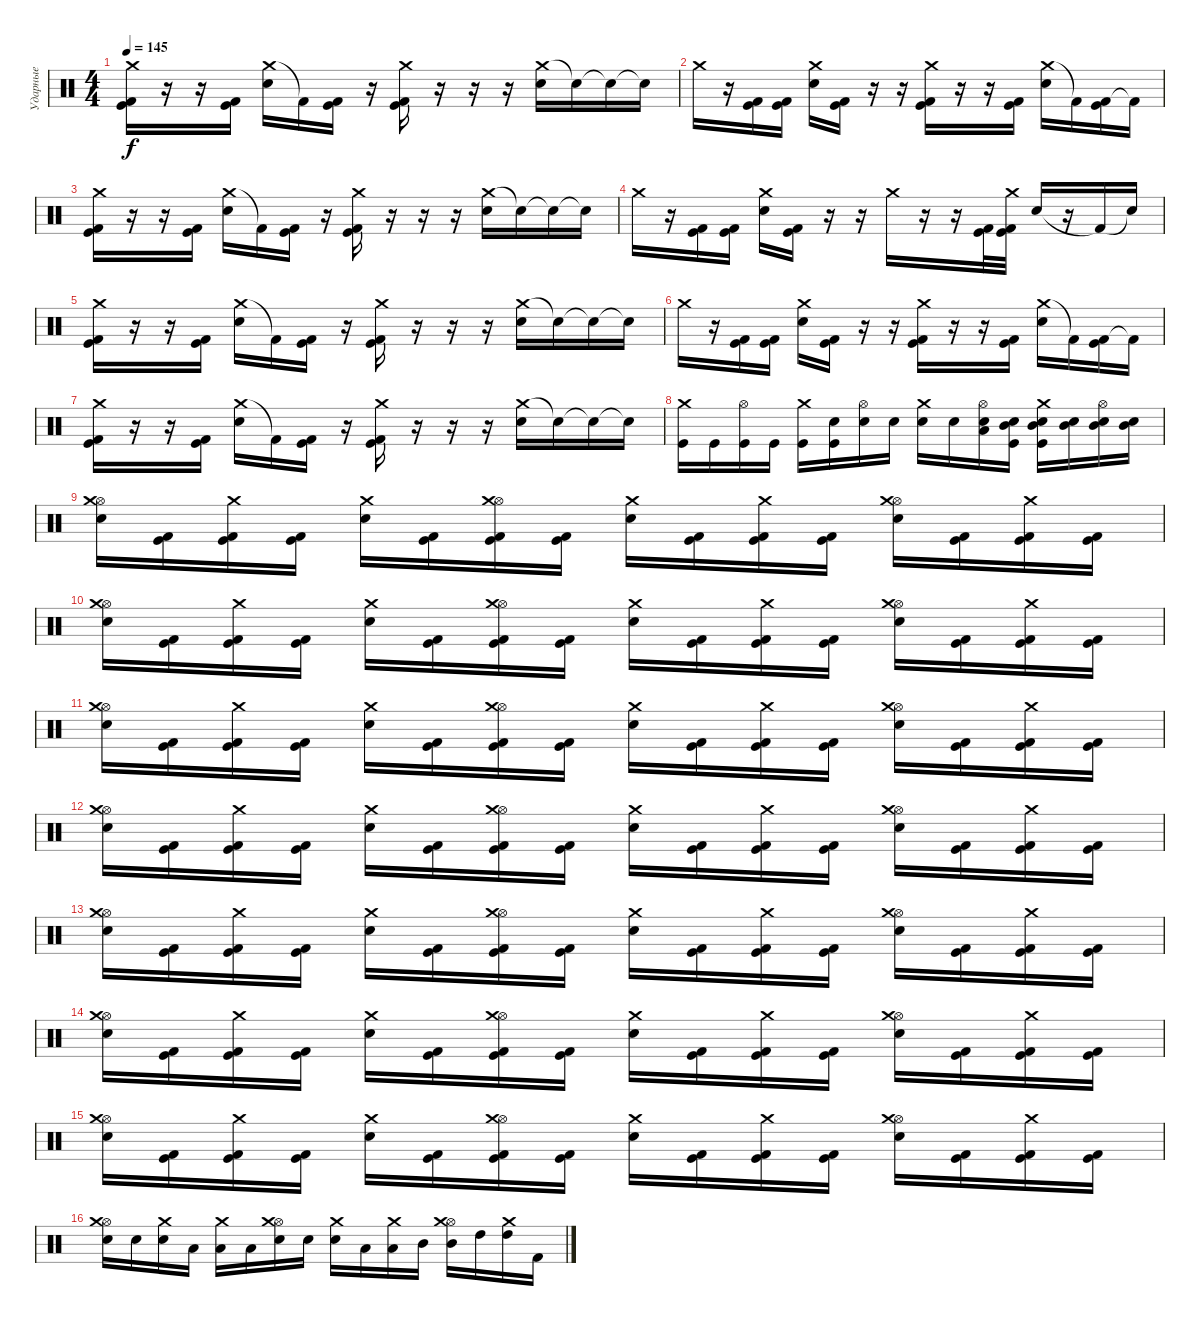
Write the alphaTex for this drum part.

\track ("Ударные" "Ударные") {instrument percussion}
\staff {score}
\articulation defaults
\ts (4 4)
\tempo 145
\clef neutral
\ks c
("Crash medium (hit)" "Kick (hit) 2" "Kick (hit)").16{dy f} r.16 r.16 ("Kick (hit) 2" "Kick (hit)").16 ("Crash medium (hit)" "Electric Snare (hit)").16 "Kick (hit) 2"{t}.16 ("Kick (hit) 2" "Kick (hit)").16 r.16 ("Crash medium (hit)" "Kick (hit) 2" "Kick (hit)").16 r.16 r.16 r.16 ("Crash medium (hit)" "Electric Snare (hit)").16 "Snare (hit)"{t}.16 "Snare (hit)"{t}.16 "Snare (hit)"{t}.16 |
"Crash medium (hit)".16 r.16 ("Kick (hit) 2" "Kick (hit)").16 ("Kick (hit) 2" "Kick (hit)").16 ("Crash medium (hit)" "Electric Snare (hit)").16 ("Kick (hit) 2" "Kick (hit)").16 r.16 r.16 ("Crash medium (hit)" "Kick (hit) 2" "Kick (hit)").16 r.16 r.16 ("Kick (hit) 2" "Kick (hit)").16 ("Crash medium (hit)" "Electric Snare (hit)").16 "Kick (hit) 2"{t}.16 ("Kick (hit) 2" "Kick (hit)").16 "Kick (hit) 2"{t}.16 |
("Crash medium (hit)" "Kick (hit) 2" "Kick (hit)").16 r.16 r.16 ("Kick (hit) 2" "Kick (hit)").16 ("Crash medium (hit)" "Electric Snare (hit)").16 "Kick (hit) 2"{t}.16 ("Kick (hit) 2" "Kick (hit)").16 r.16 ("Crash medium (hit)" "Kick (hit) 2" "Kick (hit)").16 r.16 r.16 r.16 ("Crash medium (hit)" "Electric Snare (hit)").16 "Snare (hit)"{t}.16 "Snare (hit)"{t}.16 "Snare (hit)"{t}.16 |
"Crash medium (hit)".16 r.16 ("Kick (hit) 2" "Kick (hit)").16 ("Kick (hit) 2" "Kick (hit)").16 ("Crash medium (hit)" "Electric Snare (hit)").16 ("Kick (hit) 2" "Kick (hit)").16 r.16 r.16 "Crash medium (hit)".16 r.16 r.16 ("Kick (hit) 2" "Kick (hit)").32 ("Crash medium (hit)" "Kick (hit) 2" "Kick (hit)").32 "Electric Snare (hit)".16 r.16 "Kick (hit) 2"{t}.16 "Snare (hit)"{t}.16 |
("Crash medium (hit)" "Kick (hit) 2" "Kick (hit)").16 r.16 r.16 ("Kick (hit) 2" "Kick (hit)").16 ("Crash medium (hit)" "Electric Snare (hit)").16 "Kick (hit) 2"{t}.16 ("Kick (hit) 2" "Kick (hit)").16 r.16 ("Crash medium (hit)" "Kick (hit) 2" "Kick (hit)").16 r.16 r.16 r.16 ("Crash medium (hit)" "Electric Snare (hit)").16 "Snare (hit)"{t}.16 "Snare (hit)"{t}.16 "Snare (hit)"{t}.16 |
"Crash medium (hit)".16 r.16 ("Kick (hit) 2" "Kick (hit)").16 ("Kick (hit) 2" "Kick (hit)").16 ("Crash medium (hit)" "Electric Snare (hit)").16 ("Kick (hit) 2" "Kick (hit)").16 r.16 r.16 ("Crash medium (hit)" "Kick (hit) 2" "Kick (hit)").16 r.16 r.16 ("Kick (hit) 2" "Kick (hit)").16 ("Crash medium (hit)" "Electric Snare (hit)").16 "Kick (hit) 2"{t}.16 ("Kick (hit) 2" "Kick (hit)").16 "Kick (hit) 2"{t}.16 |
("Crash medium (hit)" "Kick (hit) 2" "Kick (hit)").16 r.16 r.16 ("Kick (hit) 2" "Kick (hit)").16 ("Crash medium (hit)" "Electric Snare (hit)").16 "Kick (hit) 2"{t}.16 ("Kick (hit) 2" "Kick (hit)").16 r.16 ("Crash medium (hit)" "Kick (hit) 2" "Kick (hit)").16 r.16 r.16 r.16 ("Crash medium (hit)" "Electric Snare (hit)").16 "Snare (hit)"{t}.16 "Snare (hit)"{t}.16 "Snare (hit)"{t}.16 |
("Crash medium (hit)" "Kick (hit)").16 "Kick (hit)".16 ("Hi-Hat (open)" "Kick (hit)").16 "Kick (hit)".16 ("Crash medium (hit)" "Kick (hit)").16 ("Electric Snare (hit)" "Kick (hit)").16 ("Hi-Hat (open)" "Electric Snare (hit)").16 "Electric Snare (hit)".16 ("Crash medium (hit)" "Electric Snare (hit)").16 "Electric Snare (hit)".16 ("Hi-Hat (open)" "Low Tom (hit)" "Electric Snare (hit)").16 ("Mid Tom (hit)" "Electric Snare (hit)" "Kick (hit)").16 ("Crash medium (hit)" "Mid Tom (hit)" "Electric Snare (hit)" "Kick (hit)").16 ("Mid Tom (hit)" "Electric Snare (hit)").16 ("Hi-Hat (open)" "Mid Tom (hit)" "Electric Snare (hit)").16 ("Mid Tom (hit)" "Electric Snare (hit)").16 |
("Hi-Hat (open)" "Crash medium (hit)" "Electric Snare (hit)").16 ("Kick (hit) 2" "Kick (hit)").16 ("Crash medium (hit)" "Kick (hit) 2" "Kick (hit)").16 ("Kick (hit) 2" "Kick (hit)").16 ("Crash medium (hit)" "Electric Snare (hit)").16 ("Kick (hit) 2" "Kick (hit)").16 ("Hi-Hat (open)" "Crash medium (hit)" "Kick (hit) 2" "Kick (hit)").16 ("Kick (hit) 2" "Kick (hit)").16 ("Crash medium (hit)" "Electric Snare (hit)").16 ("Kick (hit) 2" "Kick (hit)").16 ("Crash medium (hit)" "Kick (hit) 2" "Kick (hit)").16 ("Kick (hit) 2" "Kick (hit)").16 ("Hi-Hat (open)" "Crash medium (hit)" "Electric Snare (hit)").16 ("Kick (hit) 2" "Kick (hit)").16 ("Crash medium (hit)" "Kick (hit) 2" "Kick (hit)").16 ("Kick (hit) 2" "Kick (hit)").16 |
("Hi-Hat (open)" "Crash medium (hit)" "Electric Snare (hit)").16 ("Kick (hit) 2" "Kick (hit)").16 ("Crash medium (hit)" "Kick (hit) 2" "Kick (hit)").16 ("Kick (hit) 2" "Kick (hit)").16 ("Crash medium (hit)" "Electric Snare (hit)").16 ("Kick (hit) 2" "Kick (hit)").16 ("Hi-Hat (open)" "Crash medium (hit)" "Kick (hit) 2" "Kick (hit)").16 ("Kick (hit) 2" "Kick (hit)").16 ("Crash medium (hit)" "Electric Snare (hit)").16 ("Kick (hit) 2" "Kick (hit)").16 ("Crash medium (hit)" "Kick (hit) 2" "Kick (hit)").16 ("Kick (hit) 2" "Kick (hit)").16 ("Hi-Hat (open)" "Crash medium (hit)" "Electric Snare (hit)").16 ("Kick (hit) 2" "Kick (hit)").16 ("Crash medium (hit)" "Kick (hit) 2" "Kick (hit)").16 ("Kick (hit) 2" "Kick (hit)").16 |
("Hi-Hat (open)" "Crash medium (hit)" "Electric Snare (hit)").16 ("Kick (hit) 2" "Kick (hit)").16 ("Crash medium (hit)" "Kick (hit) 2" "Kick (hit)").16 ("Kick (hit) 2" "Kick (hit)").16 ("Crash medium (hit)" "Electric Snare (hit)").16 ("Kick (hit) 2" "Kick (hit)").16 ("Hi-Hat (open)" "Crash medium (hit)" "Kick (hit) 2" "Kick (hit)").16 ("Kick (hit) 2" "Kick (hit)").16 ("Crash medium (hit)" "Electric Snare (hit)").16 ("Kick (hit) 2" "Kick (hit)").16 ("Crash medium (hit)" "Kick (hit) 2" "Kick (hit)").16 ("Kick (hit) 2" "Kick (hit)").16 ("Hi-Hat (open)" "Crash medium (hit)" "Electric Snare (hit)").16 ("Kick (hit) 2" "Kick (hit)").16 ("Crash medium (hit)" "Kick (hit) 2" "Kick (hit)").16 ("Kick (hit) 2" "Kick (hit)").16 |
("Hi-Hat (open)" "Crash medium (hit)" "Electric Snare (hit)").16 ("Kick (hit) 2" "Kick (hit)").16 ("Crash medium (hit)" "Kick (hit) 2" "Kick (hit)").16 ("Kick (hit) 2" "Kick (hit)").16 ("Crash medium (hit)" "Electric Snare (hit)").16 ("Kick (hit) 2" "Kick (hit)").16 ("Hi-Hat (open)" "Crash medium (hit)" "Kick (hit) 2" "Kick (hit)").16 ("Kick (hit) 2" "Kick (hit)").16 ("Crash medium (hit)" "Electric Snare (hit)").16 ("Kick (hit) 2" "Kick (hit)").16 ("Crash medium (hit)" "Kick (hit) 2" "Kick (hit)").16 ("Kick (hit) 2" "Kick (hit)").16 ("Hi-Hat (open)" "Crash medium (hit)" "Electric Snare (hit)").16 ("Kick (hit) 2" "Kick (hit)").16 ("Crash medium (hit)" "Kick (hit) 2" "Kick (hit)").16 ("Kick (hit) 2" "Kick (hit)").16 |
("Hi-Hat (open)" "Crash medium (hit)" "Electric Snare (hit)").16 ("Kick (hit) 2" "Kick (hit)").16 ("Crash medium (hit)" "Kick (hit) 2" "Kick (hit)").16 ("Kick (hit) 2" "Kick (hit)").16 ("Crash medium (hit)" "Electric Snare (hit)").16 ("Kick (hit) 2" "Kick (hit)").16 ("Hi-Hat (open)" "Crash medium (hit)" "Kick (hit) 2" "Kick (hit)").16 ("Kick (hit) 2" "Kick (hit)").16 ("Crash medium (hit)" "Electric Snare (hit)").16 ("Kick (hit) 2" "Kick (hit)").16 ("Crash medium (hit)" "Kick (hit) 2" "Kick (hit)").16 ("Kick (hit) 2" "Kick (hit)").16 ("Hi-Hat (open)" "Crash medium (hit)" "Electric Snare (hit)").16 ("Kick (hit) 2" "Kick (hit)").16 ("Crash medium (hit)" "Kick (hit) 2" "Kick (hit)").16 ("Kick (hit) 2" "Kick (hit)").16 |
("Hi-Hat (open)" "Crash medium (hit)" "Electric Snare (hit)").16 ("Kick (hit) 2" "Kick (hit)").16 ("Crash medium (hit)" "Kick (hit) 2" "Kick (hit)").16 ("Kick (hit) 2" "Kick (hit)").16 ("Crash medium (hit)" "Electric Snare (hit)").16 ("Kick (hit) 2" "Kick (hit)").16 ("Hi-Hat (open)" "Crash medium (hit)" "Kick (hit) 2" "Kick (hit)").16 ("Kick (hit) 2" "Kick (hit)").16 ("Crash medium (hit)" "Electric Snare (hit)").16 ("Kick (hit) 2" "Kick (hit)").16 ("Crash medium (hit)" "Kick (hit) 2" "Kick (hit)").16 ("Kick (hit) 2" "Kick (hit)").16 ("Hi-Hat (open)" "Crash medium (hit)" "Electric Snare (hit)").16 ("Kick (hit) 2" "Kick (hit)").16 ("Crash medium (hit)" "Kick (hit) 2" "Kick (hit)").16 ("Kick (hit) 2" "Kick (hit)").16 |
("Hi-Hat (open)" "Crash medium (hit)" "Electric Snare (hit)").16 ("Kick (hit) 2" "Kick (hit)").16 ("Crash medium (hit)" "Kick (hit) 2" "Kick (hit)").16 ("Kick (hit) 2" "Kick (hit)").16 ("Crash medium (hit)" "Electric Snare (hit)").16 ("Kick (hit) 2" "Kick (hit)").16 ("Hi-Hat (open)" "Crash medium (hit)" "Kick (hit) 2" "Kick (hit)").16 ("Kick (hit) 2" "Kick (hit)").16 ("Crash medium (hit)" "Electric Snare (hit)").16 ("Kick (hit) 2" "Kick (hit)").16 ("Crash medium (hit)" "Kick (hit) 2" "Kick (hit)").16 ("Kick (hit) 2" "Kick (hit)").16 ("Hi-Hat (open)" "Crash medium (hit)" "Electric Snare (hit)").16 ("Kick (hit) 2" "Kick (hit)").16 ("Crash medium (hit)" "Kick (hit) 2" "Kick (hit)").16 ("Kick (hit) 2" "Kick (hit)").16 |
("Hi-Hat (open)" "Crash medium (hit)" "Electric Snare (hit)").16 "Electric Snare (hit)".16 ("Crash medium (hit)" "Electric Snare (hit)").16 "Low Tom (hit)".16 ("Crash medium (hit)" "Low Tom (hit)").16 "Low Tom (hit)".16 ("Hi-Hat (open)" "Crash medium (hit)" "Electric Snare (hit)").16 "Electric Snare (hit)".16 ("Crash medium (hit)" "Electric Snare (hit)").16 "Low Tom (hit)".16 ("Crash medium (hit)" "Low Tom (hit)").16 "Mid Tom (hit)".16 ("Hi-Hat (open)" "Crash medium (hit)" "Mid Tom (hit)").16 "High Tom (hit)".16 ("Crash medium (hit)" "High Tom (hit)").16 "Kick (hit) 2".16
